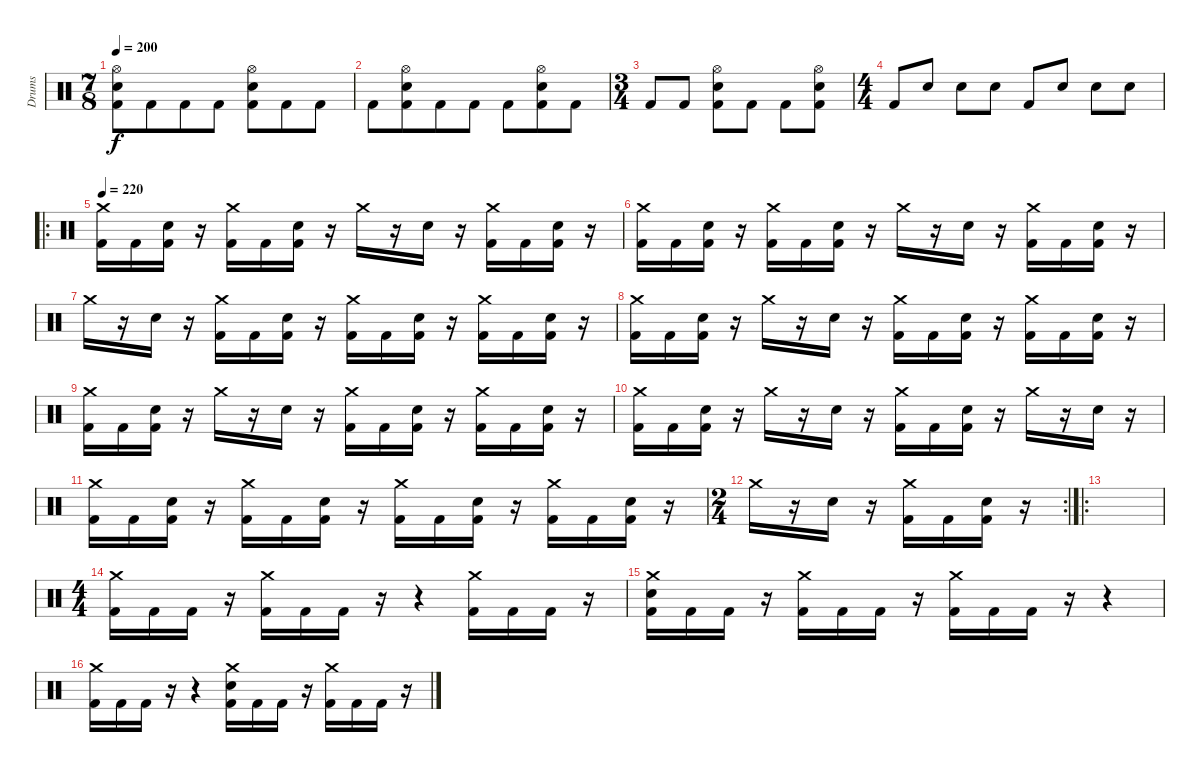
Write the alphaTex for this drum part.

\track ("Drums" "Drums") {instrument percussion}
\staff {score}
\articulation defaults
\ts (7 8)
\tempo 200
\clef neutral
\ks c
("Hi-Hat (open)" "Electric Snare (hit)" "Kick (hit) 2").8{dy f} "Kick (hit) 2".8 "Kick (hit) 2".8 "Kick (hit) 2".8 ("Hi-Hat (open)" "Electric Snare (hit)" "Kick (hit) 2").8 "Kick (hit) 2".8 "Kick (hit) 2".8 |
"Kick (hit) 2".8 ("Hi-Hat (open)" "Electric Snare (hit)" "Kick (hit) 2").8 "Kick (hit) 2".8 "Kick (hit) 2".8 "Kick (hit) 2".8 ("Hi-Hat (open)" "Electric Snare (hit)" "Kick (hit) 2").8 "Kick (hit) 2".8 |
\ts (3 4)
"Kick (hit) 2".8 "Kick (hit) 2".8 ("Hi-Hat (open)" "Electric Snare (hit)" "Kick (hit) 2").8 "Kick (hit) 2".8 "Kick (hit) 2".8 ("Hi-Hat (open)" "Electric Snare (hit)" "Kick (hit) 2").8 |
\ts (4 4)
"Kick (hit) 2".8 "Electric Snare (hit)".8 "Electric Snare (hit)".8 "Electric Snare (hit)".8 "Kick (hit) 2".8 "Electric Snare (hit)".8 "Electric Snare (hit)".8 "Electric Snare (hit)".8 |
\ro
\tempo 220
("Crash medium (hit)" "Kick (hit) 2").16 "Kick (hit) 2".16 ("Electric Snare (hit)" "Kick (hit) 2").16 r.16 ("Crash medium (hit)" "Kick (hit) 2").16 "Kick (hit) 2".16 ("Electric Snare (hit)" "Kick (hit) 2").16 r.16 "Crash medium (hit)".16 r.16 "Electric Snare (hit)".16 r.16 ("Crash medium (hit)" "Kick (hit) 2").16 "Kick (hit) 2".16 ("Electric Snare (hit)" "Kick (hit) 2").16 r.16 |
("Crash medium (hit)" "Kick (hit) 2").16 "Kick (hit) 2".16 ("Electric Snare (hit)" "Kick (hit) 2").16 r.16 ("Crash medium (hit)" "Kick (hit) 2").16 "Kick (hit) 2".16 ("Electric Snare (hit)" "Kick (hit) 2").16 r.16 "Crash medium (hit)".16 r.16 "Electric Snare (hit)".16 r.16 ("Crash medium (hit)" "Kick (hit) 2").16 "Kick (hit) 2".16 ("Electric Snare (hit)" "Kick (hit) 2").16 r.16 |
"Crash medium (hit)".16 r.16 "Electric Snare (hit)".16 r.16 ("Crash medium (hit)" "Kick (hit) 2").16 "Kick (hit) 2".16 ("Electric Snare (hit)" "Kick (hit) 2").16 r.16 ("Crash medium (hit)" "Kick (hit) 2").16 "Kick (hit) 2".16 ("Electric Snare (hit)" "Kick (hit) 2").16 r.16 ("Crash medium (hit)" "Kick (hit) 2").16 "Kick (hit) 2".16 ("Electric Snare (hit)" "Kick (hit) 2").16 r.16 |
("Crash medium (hit)" "Kick (hit) 2").16 "Kick (hit) 2".16 ("Electric Snare (hit)" "Kick (hit) 2").16 r.16 "Crash medium (hit)".16 r.16 "Electric Snare (hit)".16 r.16 ("Crash medium (hit)" "Kick (hit) 2").16 "Kick (hit) 2".16 ("Electric Snare (hit)" "Kick (hit) 2").16 r.16 ("Crash medium (hit)" "Kick (hit) 2").16 "Kick (hit) 2".16 ("Electric Snare (hit)" "Kick (hit) 2").16 r.16 |
("Crash medium (hit)" "Kick (hit) 2").16 "Kick (hit) 2".16 ("Electric Snare (hit)" "Kick (hit) 2").16 r.16 "Crash medium (hit)".16 r.16 "Electric Snare (hit)".16 r.16 ("Crash medium (hit)" "Kick (hit) 2").16 "Kick (hit) 2".16 ("Electric Snare (hit)" "Kick (hit) 2").16 r.16 ("Crash medium (hit)" "Kick (hit) 2").16 "Kick (hit) 2".16 ("Electric Snare (hit)" "Kick (hit) 2").16 r.16 |
("Crash medium (hit)" "Kick (hit) 2").16 "Kick (hit) 2".16 ("Electric Snare (hit)" "Kick (hit) 2").16 r.16 "Crash medium (hit)".16 r.16 "Electric Snare (hit)".16 r.16 ("Crash medium (hit)" "Kick (hit) 2").16 "Kick (hit) 2".16 ("Electric Snare (hit)" "Kick (hit) 2").16 r.16 "Crash medium (hit)".16 r.16 "Electric Snare (hit)".16 r.16 |
("Crash medium (hit)" "Kick (hit) 2").16 "Kick (hit) 2".16 ("Electric Snare (hit)" "Kick (hit) 2").16 r.16 ("Crash medium (hit)" "Kick (hit) 2").16 "Kick (hit) 2".16 ("Electric Snare (hit)" "Kick (hit) 2").16 r.16 ("Crash medium (hit)" "Kick (hit) 2").16 "Kick (hit) 2".16 ("Electric Snare (hit)" "Kick (hit) 2").16 r.16 ("Crash medium (hit)" "Kick (hit) 2").16 "Kick (hit) 2".16 ("Electric Snare (hit)" "Kick (hit) 2").16 r.16 |
\rc 2
\ts (2 4)
"Crash medium (hit)".16 r.16 "Electric Snare (hit)".16 r.16 ("Crash medium (hit)" "Kick (hit) 2").16 "Kick (hit) 2".16 ("Electric Snare (hit)" "Kick (hit) 2").16 r.16 |
\ro
|
\ts (4 4)
("Crash medium (hit)" "Kick (hit) 2").16 "Kick (hit) 2".16 "Kick (hit) 2".16 r.16 ("Crash medium (hit)" "Kick (hit) 2").16 "Kick (hit) 2".16 "Kick (hit) 2".16 r.16 r.4 ("Crash medium (hit)" "Kick (hit) 2").16 "Kick (hit) 2".16 "Kick (hit) 2".16 r.16 |
("Crash medium (hit)" "Electric Snare (hit)" "Kick (hit) 2").16 "Kick (hit) 2".16 "Kick (hit) 2".16 r.16 ("Crash medium (hit)" "Kick (hit) 2").16 "Kick (hit) 2".16 "Kick (hit) 2".16 r.16 ("Crash medium (hit)" "Kick (hit) 2").16 "Kick (hit) 2".16 "Kick (hit) 2".16 r.16 r.4 |
("Crash medium (hit)" "Kick (hit) 2").16 "Kick (hit) 2".16 "Kick (hit) 2".16 r.16 r.4 ("Crash medium (hit)" "Electric Snare (hit)" "Kick (hit) 2").16 "Kick (hit) 2".16 "Kick (hit) 2".16 r.16 ("Crash medium (hit)" "Kick (hit) 2").16 "Kick (hit) 2".16 "Kick (hit) 2".16 r.16
